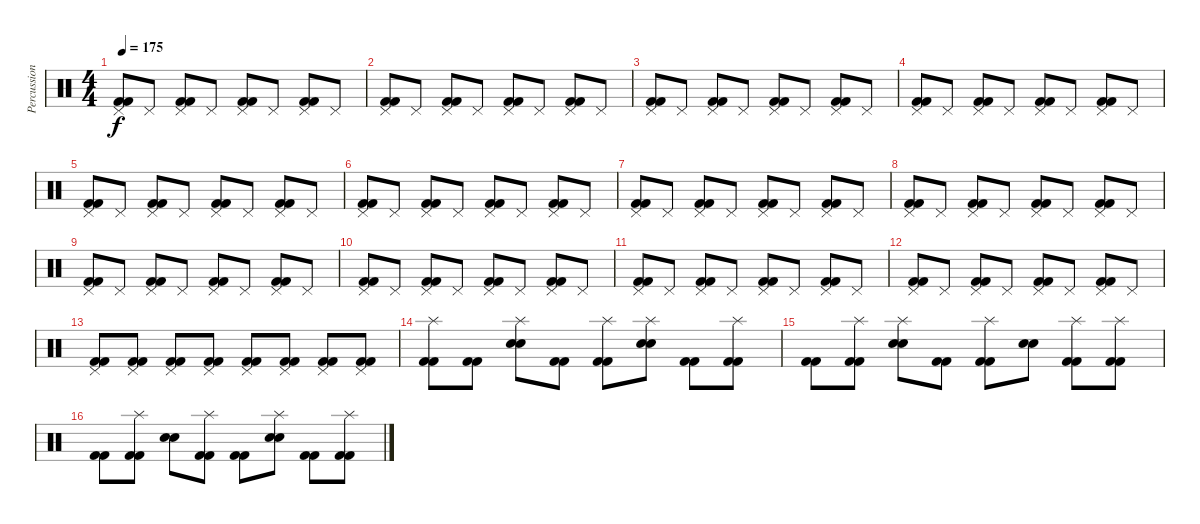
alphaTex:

\track ("Percussion" "Percussion") {instrument percussion}
\staff {score}
\articulation defaults
\ts (4 4)
\tempo 175
\clef neutral
\ks c
("Kick (hit) 2" "Kick (hit) 2" "Pedal Hi-Hat (hit)").8{dy f} "Pedal Hi-Hat (hit)".8 ("Kick (hit) 2" "Kick (hit) 2" "Pedal Hi-Hat (hit)").8 "Pedal Hi-Hat (hit)".8 ("Kick (hit) 2" "Kick (hit) 2" "Pedal Hi-Hat (hit)").8 "Pedal Hi-Hat (hit)".8 ("Kick (hit) 2" "Kick (hit) 2" "Pedal Hi-Hat (hit)").8 "Pedal Hi-Hat (hit)".8 |
("Kick (hit) 2" "Kick (hit) 2" "Pedal Hi-Hat (hit)").8 "Pedal Hi-Hat (hit)".8 ("Kick (hit) 2" "Kick (hit) 2" "Pedal Hi-Hat (hit)").8 "Pedal Hi-Hat (hit)".8 ("Kick (hit) 2" "Kick (hit) 2" "Pedal Hi-Hat (hit)").8 "Pedal Hi-Hat (hit)".8 ("Kick (hit) 2" "Kick (hit) 2" "Pedal Hi-Hat (hit)").8 "Pedal Hi-Hat (hit)".8 |
("Kick (hit) 2" "Kick (hit) 2" "Pedal Hi-Hat (hit)").8 "Pedal Hi-Hat (hit)".8 ("Kick (hit) 2" "Kick (hit) 2" "Pedal Hi-Hat (hit)").8 "Pedal Hi-Hat (hit)".8 ("Kick (hit) 2" "Kick (hit) 2" "Pedal Hi-Hat (hit)").8 "Pedal Hi-Hat (hit)".8 ("Kick (hit) 2" "Kick (hit) 2" "Pedal Hi-Hat (hit)").8 "Pedal Hi-Hat (hit)".8 |
("Kick (hit) 2" "Kick (hit) 2" "Pedal Hi-Hat (hit)").8 "Pedal Hi-Hat (hit)".8 ("Kick (hit) 2" "Kick (hit) 2" "Pedal Hi-Hat (hit)").8 "Pedal Hi-Hat (hit)".8 ("Kick (hit) 2" "Kick (hit) 2" "Pedal Hi-Hat (hit)").8 "Pedal Hi-Hat (hit)".8 ("Kick (hit) 2" "Kick (hit) 2" "Pedal Hi-Hat (hit)").8 "Pedal Hi-Hat (hit)".8 |
("Kick (hit) 2" "Kick (hit) 2" "Pedal Hi-Hat (hit)").8 "Pedal Hi-Hat (hit)".8 ("Kick (hit) 2" "Kick (hit) 2" "Pedal Hi-Hat (hit)").8 "Pedal Hi-Hat (hit)".8 ("Kick (hit) 2" "Kick (hit) 2" "Pedal Hi-Hat (hit)").8 "Pedal Hi-Hat (hit)".8 ("Kick (hit) 2" "Kick (hit) 2" "Pedal Hi-Hat (hit)").8 "Pedal Hi-Hat (hit)".8 |
("Kick (hit) 2" "Kick (hit) 2" "Pedal Hi-Hat (hit)").8 "Pedal Hi-Hat (hit)".8 ("Kick (hit) 2" "Kick (hit) 2" "Pedal Hi-Hat (hit)").8 "Pedal Hi-Hat (hit)".8 ("Kick (hit) 2" "Kick (hit) 2" "Pedal Hi-Hat (hit)").8 "Pedal Hi-Hat (hit)".8 ("Kick (hit) 2" "Kick (hit) 2" "Pedal Hi-Hat (hit)").8 "Pedal Hi-Hat (hit)".8 |
("Kick (hit) 2" "Kick (hit) 2" "Pedal Hi-Hat (hit)").8 "Pedal Hi-Hat (hit)".8 ("Kick (hit) 2" "Kick (hit) 2" "Pedal Hi-Hat (hit)").8 "Pedal Hi-Hat (hit)".8 ("Kick (hit) 2" "Kick (hit) 2" "Pedal Hi-Hat (hit)").8 "Pedal Hi-Hat (hit)".8 ("Kick (hit) 2" "Kick (hit) 2" "Pedal Hi-Hat (hit)").8 "Pedal Hi-Hat (hit)".8 |
("Kick (hit) 2" "Kick (hit) 2" "Pedal Hi-Hat (hit)").8 "Pedal Hi-Hat (hit)".8 ("Kick (hit) 2" "Kick (hit) 2" "Pedal Hi-Hat (hit)").8 "Pedal Hi-Hat (hit)".8 ("Kick (hit) 2" "Kick (hit) 2" "Pedal Hi-Hat (hit)").8 "Pedal Hi-Hat (hit)".8 ("Kick (hit) 2" "Kick (hit) 2" "Pedal Hi-Hat (hit)").8 "Pedal Hi-Hat (hit)".8 |
("Kick (hit) 2" "Kick (hit) 2" "Pedal Hi-Hat (hit)").8 "Pedal Hi-Hat (hit)".8 ("Kick (hit) 2" "Kick (hit) 2" "Pedal Hi-Hat (hit)").8 "Pedal Hi-Hat (hit)".8 ("Kick (hit) 2" "Kick (hit) 2" "Pedal Hi-Hat (hit)").8 "Pedal Hi-Hat (hit)".8 ("Kick (hit) 2" "Kick (hit) 2" "Pedal Hi-Hat (hit)").8 "Pedal Hi-Hat (hit)".8 |
("Kick (hit) 2" "Kick (hit) 2" "Pedal Hi-Hat (hit)").8 "Pedal Hi-Hat (hit)".8 ("Kick (hit) 2" "Kick (hit) 2" "Pedal Hi-Hat (hit)").8 "Pedal Hi-Hat (hit)".8 ("Kick (hit) 2" "Kick (hit) 2" "Pedal Hi-Hat (hit)").8 "Pedal Hi-Hat (hit)".8 ("Kick (hit) 2" "Kick (hit) 2" "Pedal Hi-Hat (hit)").8 "Pedal Hi-Hat (hit)".8 |
("Kick (hit) 2" "Kick (hit) 2" "Pedal Hi-Hat (hit)").8 "Pedal Hi-Hat (hit)".8 ("Kick (hit) 2" "Kick (hit) 2" "Pedal Hi-Hat (hit)").8 "Pedal Hi-Hat (hit)".8 ("Kick (hit) 2" "Kick (hit) 2" "Pedal Hi-Hat (hit)").8 "Pedal Hi-Hat (hit)".8 ("Kick (hit) 2" "Kick (hit) 2" "Pedal Hi-Hat (hit)").8 "Pedal Hi-Hat (hit)".8 |
("Kick (hit) 2" "Kick (hit) 2" "Pedal Hi-Hat (hit)").8 "Pedal Hi-Hat (hit)".8 ("Kick (hit) 2" "Kick (hit) 2" "Pedal Hi-Hat (hit)").8 "Pedal Hi-Hat (hit)".8 ("Kick (hit) 2" "Kick (hit) 2" "Pedal Hi-Hat (hit)").8 "Pedal Hi-Hat (hit)".8 ("Kick (hit) 2" "Kick (hit) 2" "Pedal Hi-Hat (hit)").8 "Pedal Hi-Hat (hit)".8 |
("Kick (hit) 2" "Kick (hit) 2" "Pedal Hi-Hat (hit)").8 ("Kick (hit) 2" "Kick (hit) 2" "Pedal Hi-Hat (hit)").8 ("Kick (hit) 2" "Kick (hit) 2" "Pedal Hi-Hat (hit)").8 ("Kick (hit) 2" "Kick (hit) 2" "Pedal Hi-Hat (hit)").8 ("Kick (hit) 2" "Kick (hit) 2" "Pedal Hi-Hat (hit)").8 ("Kick (hit) 2" "Kick (hit) 2" "Pedal Hi-Hat (hit)").8 ("Kick (hit) 2" "Kick (hit) 2" "Pedal Hi-Hat (hit)").8 ("Kick (hit) 2" "Kick (hit) 2" "Pedal Hi-Hat (hit)").8 |
("Splash (hit)" "Kick (hit) 2" "Kick (hit) 2").8 ("Kick (hit) 2" "Kick (hit) 2").8 ("Splash (hit)" "Electric Snare (hit)" "Electric Snare (hit)").8 ("Kick (hit) 2" "Kick (hit) 2").8 ("Splash (hit)" "Kick (hit) 2" "Kick (hit) 2").8 ("Splash (hit)" "Electric Snare (hit)" "Electric Snare (hit)").8 ("Kick (hit) 2" "Kick (hit) 2").8 ("Splash (hit)" "Kick (hit) 2" "Kick (hit) 2").8 |
("Kick (hit) 2" "Kick (hit) 2").8 ("Splash (hit)" "Kick (hit) 2" "Kick (hit) 2").8 ("Splash (hit)" "Electric Snare (hit)" "Electric Snare (hit)").8 ("Kick (hit) 2" "Kick (hit) 2").8 ("Splash (hit)" "Kick (hit) 2" "Kick (hit) 2").8 ("Electric Snare (hit)" "Electric Snare (hit)").8 ("Splash (hit)" "Kick (hit) 2" "Kick (hit) 2").8 ("Splash (hit)" "Kick (hit) 2" "Kick (hit) 2").8 |
("Kick (hit) 2" "Kick (hit) 2").8 ("Splash (hit)" "Kick (hit) 2" "Kick (hit) 2").8 ("Electric Snare (hit)" "Electric Snare (hit)").8 ("Splash (hit)" "Kick (hit) 2" "Kick (hit) 2").8 ("Kick (hit) 2" "Kick (hit) 2").8 ("Splash (hit)" "Electric Snare (hit)" "Electric Snare (hit)").8 ("Kick (hit) 2" "Kick (hit) 2").8 ("Splash (hit)" "Kick (hit) 2" "Kick (hit) 2").8
